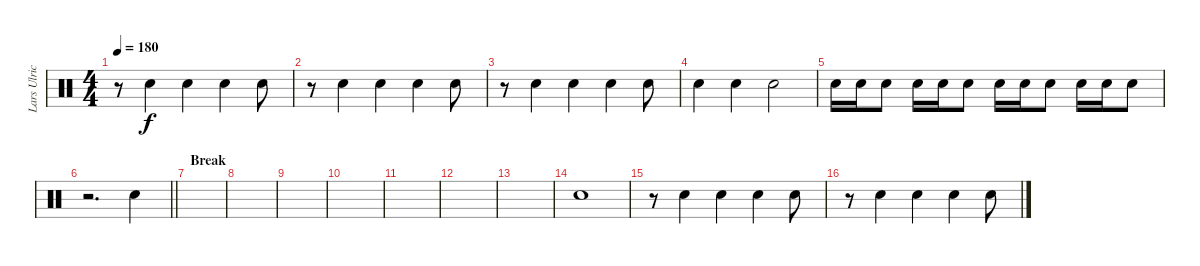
\track ("Lars Ulrich" "Lars Ulric") {instrument percussion}
\staff {score}
\articulation defaults
\ts (4 4)
\tempo 180
\clef neutral
\ks c
r.8{dy f} "Snare (hit) 2".4 "Snare (hit) 2".4 "Snare (hit) 2".4 "Snare (hit) 2".8 |
r.8 "Snare (hit) 2".4 "Snare (hit) 2".4 "Snare (hit) 2".4 "Snare (hit) 2".8 |
r.8 "Snare (hit) 2".4 "Snare (hit) 2".4 "Snare (hit) 2".4 "Snare (hit) 2".8 |
"Snare (hit) 2".4 "Snare (hit) 2".4 "Snare (hit) 2".2 |
"Snare (hit) 2".16 "Snare (hit) 2".16 "Snare (hit) 2".8 "Snare (hit) 2".16 "Snare (hit) 2".16 "Snare (hit) 2".8 "Snare (hit) 2".16 "Snare (hit) 2".16 "Snare (hit) 2".8 "Snare (hit) 2".16 "Snare (hit) 2".16 "Snare (hit) 2".8 |
\barLineRight lightlight
r.2{d} "Snare (hit) 2".4 |
\section ("" "Break")
|
|
|
|
|
|
|
"Snare (hit) 2".1 |
r.8 "Snare (hit) 2".4 "Snare (hit) 2".4 "Snare (hit) 2".4 "Snare (hit) 2".8 |
r.8 "Snare (hit) 2".4 "Snare (hit) 2".4 "Snare (hit) 2".4 "Snare (hit) 2".8
